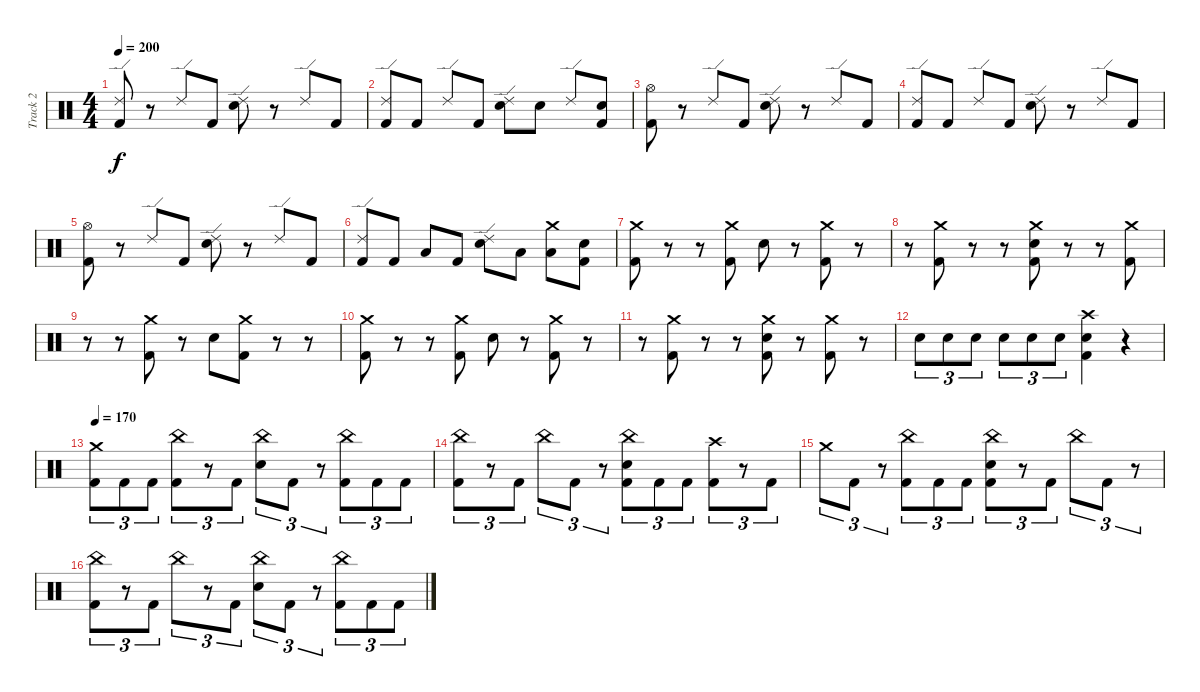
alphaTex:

\track ("Track 2" "Track 2") {instrument percussion}
\staff {score}
\articulation defaults
\ts (4 4)
\tempo 200
\clef neutral
\ks c
("Ride (edge) 2" "Kick (hit) 2").8{dy f} r.8 "Ride (edge) 2".8 "Kick (hit) 2".8 ("Ride (edge) 2" "Electric Snare (hit)").8 r.8 "Ride (edge) 2".8 "Kick (hit) 2".8 |
("Ride (edge) 2" "Kick (hit) 2").8 "Kick (hit) 2".8 "Ride (edge) 2".8 "Kick (hit) 2".8 ("Ride (edge) 2" "Electric Snare (hit)").8 "Electric Snare (hit)".8 "Ride (edge) 2".8 ("Electric Snare (hit)" "Kick (hit) 2").8 |
("Hi-Hat (open)" "Kick (hit) 2").8 r.8 "Ride (edge) 2".8 "Kick (hit) 2".8 ("Ride (edge) 2" "Electric Snare (hit)").8 r.8 "Ride (edge) 2".8 "Kick (hit) 2".8 |
("Ride (edge) 2" "Kick (hit) 2").8 "Kick (hit) 2".8 "Ride (edge) 2".8 "Kick (hit) 2".8 ("Ride (edge) 2" "Electric Snare (hit)").8 r.8 "Ride (edge) 2".8 "Kick (hit) 2".8 |
("Hi-Hat (open)" "Kick (hit) 2").8 r.8 "Ride (edge) 2".8 "Kick (hit) 2".8 ("Ride (edge) 2" "Electric Snare (hit)").8 r.8 "Ride (edge) 2".8 "Kick (hit) 2".8 |
("Ride (edge) 2" "Kick (hit) 2").8 "Kick (hit) 2".8 "Low Floor Tom (hit)".8 "Kick (hit) 2".8 ("Ride (edge) 2" "Electric Snare (hit)").8 "Low Floor Tom (hit)".8 ("Crash medium (hit)" "Low Floor Tom (hit)").8 ("Electric Snare (hit)" "Kick (hit) 2").8 |
("Crash medium (hit)" "Kick (hit) 2").8 r.8 r.8 ("Crash medium (hit)" "Kick (hit) 2").8 "Electric Snare (hit)".8 r.8 ("Crash medium (hit)" "Kick (hit) 2").8 r.8 |
r.8 ("Crash medium (hit)" "Kick (hit) 2").8 r.8 r.8 ("Crash medium (hit)" "Electric Snare (hit)" "Kick (hit) 2").8 r.8 r.8 ("Crash medium (hit)" "Kick (hit) 2").8 |
r.8 r.8 ("Crash medium (hit)" "Kick (hit) 2").8 r.8 "Electric Snare (hit)".8 ("Crash medium (hit)" "Kick (hit) 2").8 r.8 r.8 |
("Crash medium (hit)" "Kick (hit) 2").8 r.8 r.8 ("Crash medium (hit)" "Kick (hit) 2").8 "Electric Snare (hit)".8 r.8 ("Crash medium (hit)" "Kick (hit) 2").8 r.8 |
r.8 ("Crash medium (hit)" "Kick (hit) 2").8 r.8 r.8 ("Crash medium (hit)" "Electric Snare (hit)" "Kick (hit) 2").8 r.8 ("Crash medium (hit)" "Kick (hit) 2").8 r.8 |
"Electric Snare (hit)".8{tu (3 2)} "Electric Snare (hit)".8{tu (3 2)} "Electric Snare (hit)".8{tu (3 2)} "Electric Snare (hit)".8{tu (3 2)} "Electric Snare (hit)".8{tu (3 2)} "Electric Snare (hit)".8{tu (3 2)} ("Crash high (hit)" "Electric Snare (hit)" "Kick (hit) 2").4 r.4 |
\tempo 170
("Crash medium (hit)" "Kick (hit) 2").8{tu (3 2)} "Kick (hit) 2".8{tu (3 2)} "Kick (hit) 2".8{tu (3 2)} ("China (hit)" "Kick (hit) 2").8{tu (3 2)} r.8{tu (3 2)} "Kick (hit) 2".8{tu (3 2)} ("China (hit)" "Electric Snare (hit)").8{tu (3 2)} "Kick (hit) 2".8{tu (3 2)} r.8{tu (3 2)} ("China (hit)" "Kick (hit) 2").8{tu (3 2)} "Kick (hit) 2".8{tu (3 2)} "Kick (hit) 2".8{tu (3 2)} |
("China (hit)" "Kick (hit) 2").8{tu (3 2)} r.8{tu (3 2)} "Kick (hit) 2".8{tu (3 2)} "China (hit)".8{tu (3 2)} "Kick (hit) 2".8{tu (3 2)} r.8{tu (3 2)} ("China (hit)" "Electric Snare (hit)" "Kick (hit) 2").8{tu (3 2)} "Kick (hit) 2".8{tu (3 2)} "Kick (hit) 2".8{tu (3 2)} ("Crash high (hit)" "Kick (hit) 2").8{tu (3 2)} r.8{tu (3 2)} "Kick (hit) 2".8{tu (3 2)} |
"Crash medium (hit)".8{tu (3 2)} "Kick (hit) 2".8{tu (3 2)} r.8{tu (3 2)} ("China (hit)" "Kick (hit) 2").8{tu (3 2)} "Kick (hit) 2".8{tu (3 2)} "Kick (hit) 2".8{tu (3 2)} ("China (hit)" "Electric Snare (hit)" "Kick (hit) 2").8{tu (3 2)} r.8{tu (3 2)} "Kick (hit) 2".8{tu (3 2)} "China (hit)".8{tu (3 2)} "Kick (hit) 2".8{tu (3 2)} r.8{tu (3 2)} |
("China (hit)" "Kick (hit) 2").8{tu (3 2)} r.8{tu (3 2)} "Kick (hit) 2".8{tu (3 2)} "China (hit)".8{tu (3 2)} r.8{tu (3 2)} "Kick (hit) 2".8{tu (3 2)} ("China (hit)" "Electric Snare (hit)").8{tu (3 2)} "Kick (hit) 2".8{tu (3 2)} r.8{tu (3 2)} ("China (hit)" "Kick (hit) 2").8{tu (3 2)} "Kick (hit) 2".8{tu (3 2)} "Kick (hit) 2".8{tu (3 2)}
